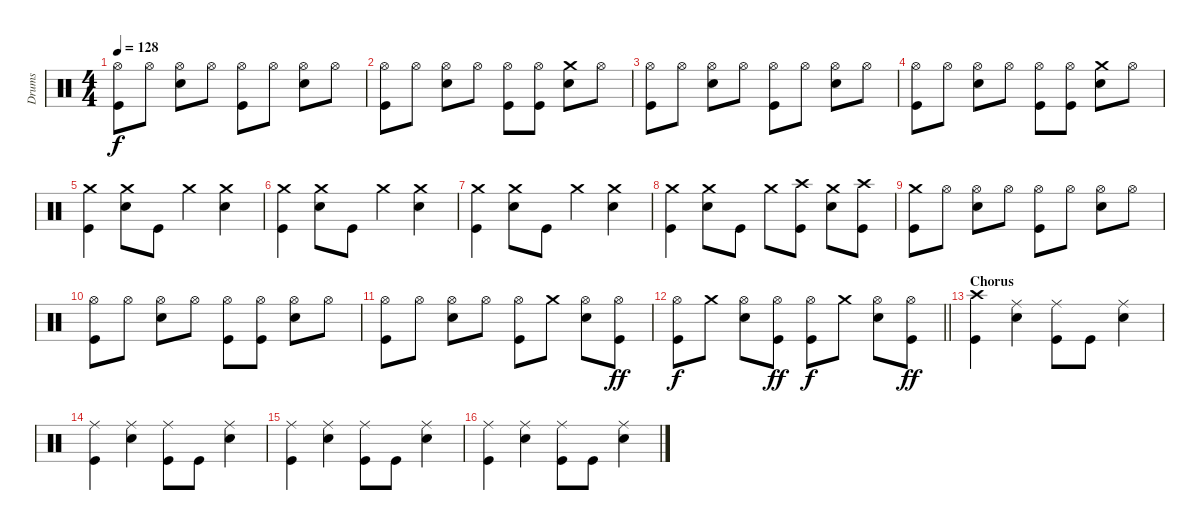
\track ("Drums" "Drums") {instrument percussion}
\staff {score}
\articulation defaults
\ts (4 4)
\tempo 128
\clef neutral
\ks c
("Hi-Hat (open)" "Kick (hit)").8{dy f} "Hi-Hat (open)".8 ("Hi-Hat (open)" "Snare (hit) 2").8 "Hi-Hat (open)".8 ("Hi-Hat (open)" "Kick (hit)").8 "Hi-Hat (open)".8 ("Hi-Hat (open)" "Snare (hit) 2").8 "Hi-Hat (open)".8 |
("Hi-Hat (open)" "Kick (hit)").8 "Hi-Hat (open)".8 ("Hi-Hat (open)" "Snare (hit) 2").8 "Hi-Hat (open)".8 ("Hi-Hat (open)" "Kick (hit)").8 ("Hi-Hat (open)" "Kick (hit)").8 ("Crash medium (hit)" "Snare (hit) 2").8 "Hi-Hat (open)".8 |
("Hi-Hat (open)" "Kick (hit)").8 "Hi-Hat (open)".8 ("Hi-Hat (open)" "Snare (hit) 2").8 "Hi-Hat (open)".8 ("Hi-Hat (open)" "Kick (hit)").8 "Hi-Hat (open)".8 ("Hi-Hat (open)" "Snare (hit) 2").8 "Hi-Hat (open)".8 |
("Hi-Hat (open)" "Kick (hit)").8 "Hi-Hat (open)".8 ("Hi-Hat (open)" "Snare (hit) 2").8 "Hi-Hat (open)".8 ("Hi-Hat (open)" "Kick (hit)").8 ("Hi-Hat (open)" "Kick (hit)").8 ("Crash medium (hit)" "Snare (hit) 2").8 "Hi-Hat (open)".8 |
("Crash medium (hit)" "Kick (hit)").4 ("Crash medium (hit)" "Snare (hit) 2").8 "Kick (hit)".8 "Crash medium (hit)".4 ("Crash medium (hit)" "Snare (hit) 2").4 |
("Crash medium (hit)" "Kick (hit)").4 ("Crash medium (hit)" "Snare (hit) 2").8 "Kick (hit)".8 "Crash medium (hit)".4 ("Crash medium (hit)" "Snare (hit) 2").4 |
("Crash medium (hit)" "Kick (hit)").4 ("Crash medium (hit)" "Snare (hit) 2").8 "Kick (hit)".8 "Crash medium (hit)".4 ("Crash medium (hit)" "Snare (hit) 2").4 |
("Crash medium (hit)" "Kick (hit)").4 ("Crash medium (hit)" "Snare (hit) 2").8 "Kick (hit)".8 "Crash medium (hit)".8 ("Crash high (hit)" "Kick (hit)").8 ("Crash medium (hit)" "Snare (hit) 2").8 ("Crash high (hit)" "Kick (hit)").8 |
("Crash medium (hit)" "Kick (hit)").8 "Hi-Hat (open)".8 ("Hi-Hat (open)" "Snare (hit) 2").8 "Hi-Hat (open)".8 ("Hi-Hat (open)" "Kick (hit)").8 "Hi-Hat (open)".8 ("Hi-Hat (open)" "Snare (hit) 2").8 "Hi-Hat (open)".8 |
("Hi-Hat (open)" "Kick (hit)").8 "Hi-Hat (open)".8 ("Hi-Hat (open)" "Snare (hit) 2").8 "Hi-Hat (open)".8 ("Hi-Hat (open)" "Kick (hit)").8 ("Hi-Hat (open)" "Kick (hit)").8 ("Hi-Hat (open)" "Snare (hit) 2").8 "Hi-Hat (open)".8 |
("Hi-Hat (open)" "Kick (hit)").8 "Hi-Hat (open)".8 ("Hi-Hat (open)" "Snare (hit) 2").8 "Hi-Hat (open)".8 ("Hi-Hat (open)" "Kick (hit)").8 "Crash medium (hit)".8 ("Hi-Hat (open)" "Snare (hit) 2").8 ("Hi-Hat (open)" "Kick (hit)").8{dy ff} |
\barLineRight lightlight
("Hi-Hat (open)" "Kick (hit)").8{dy f} "Crash medium (hit)".8 ("Hi-Hat (open)" "Snare (hit) 2").8 ("Hi-Hat (open)" "Kick (hit)").8{dy ff} ("Hi-Hat (open)" "Kick (hit)").8{dy f} "Crash medium (hit)".8 ("Hi-Hat (open)" "Snare (hit) 2").8 ("Hi-Hat (open)" "Kick (hit)").8{dy ff} |
\section ("" "Chorus")
("Crash high (hit)" "Kick (hit)").4 ("Ride (middle)" "Snare (hit) 2").4 ("Ride (middle)" "Kick (hit)").8 "Kick (hit)".8 ("Ride (middle)" "Snare (hit) 2").4 |
("Ride (middle)" "Kick (hit)").4 ("Ride (middle)" "Snare (hit) 2").4 ("Ride (middle)" "Kick (hit)").8 "Kick (hit)".8 ("Ride (middle)" "Snare (hit) 2").4 |
("Ride (middle)" "Kick (hit)").4 ("Ride (middle)" "Snare (hit) 2").4 ("Ride (middle)" "Kick (hit)").8 "Kick (hit)".8 ("Ride (middle)" "Snare (hit) 2").4 |
("Ride (middle)" "Kick (hit)").4 ("Ride (middle)" "Snare (hit) 2").4 ("Ride (middle)" "Kick (hit)").8 "Kick (hit)".8 ("Ride (middle)" "Snare (hit) 2").4
